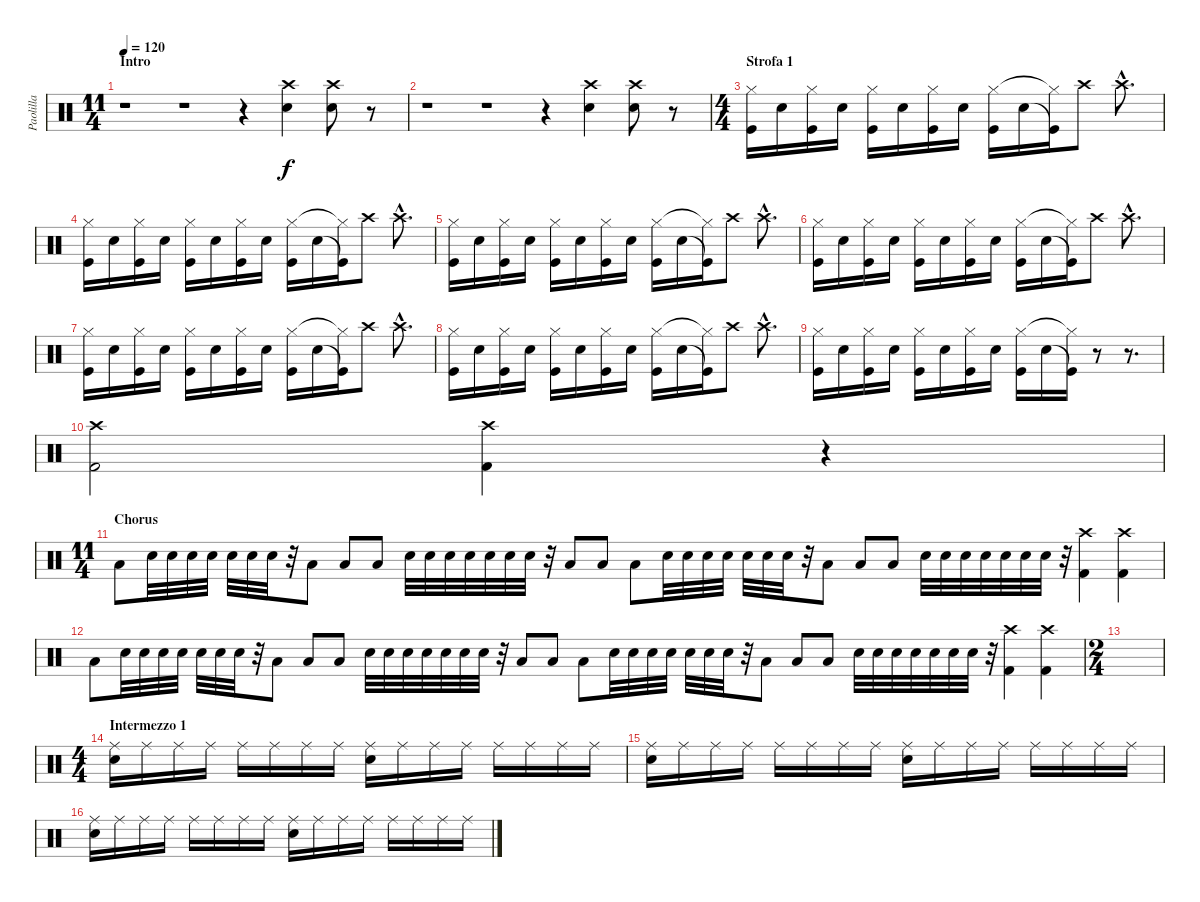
\track ("Paolilla" "Paolilla") {instrument percussion}
\staff {score}
\articulation defaults
\ts (11 4)
\section ("" "Intro")
\tempo 120
\clef neutral
\ks c
r.1{dy f} r.1 r.4 ("Snare (hit) 2" "Crash high (hit)").4 ("Snare (hit) 2" "Crash high (hit)").8 r.8 |
r.1 r.1 r.4 ("Snare (hit) 2" "Crash high (hit)").4 ("Snare (hit) 2" "Crash high (hit)").8 r.8 |
\ts (4 4)
\section ("" "Strofa 1")
("Kick (hit)" "Hi-Hat (closed)").16 "Snare (hit) 2".16 ("Kick (hit)" "Hi-Hat (closed)").16 "Snare (hit) 2".16 ("Kick (hit)" "Hi-Hat (closed)").16 "Snare (hit) 2".16 ("Kick (hit)" "Hi-Hat (closed)").16 "Snare (hit) 2".16 ("Kick (hit)" "Hi-Hat (closed)").16 "Snare (hit) 2".16 ("Kick (hit)"{t} "Hi-Hat (closed)"{t}).16 "Crash high (hit)".8 "Crash high (hit)"{hac}.8{d} |
("Kick (hit)" "Hi-Hat (closed)").16 "Snare (hit) 2".16 ("Kick (hit)" "Hi-Hat (closed)").16 "Snare (hit) 2".16 ("Kick (hit)" "Hi-Hat (closed)").16 "Snare (hit) 2".16 ("Kick (hit)" "Hi-Hat (closed)").16 "Snare (hit) 2".16 ("Kick (hit)" "Hi-Hat (closed)").16 "Snare (hit) 2".16 ("Kick (hit)"{t} "Hi-Hat (closed)"{t}).16 "Crash high (hit)".8 "Crash high (hit)"{hac}.8{d} |
("Kick (hit)" "Hi-Hat (closed)").16 "Snare (hit) 2".16 ("Kick (hit)" "Hi-Hat (closed)").16 "Snare (hit) 2".16 ("Kick (hit)" "Hi-Hat (closed)").16 "Snare (hit) 2".16 ("Kick (hit)" "Hi-Hat (closed)").16 "Snare (hit) 2".16 ("Kick (hit)" "Hi-Hat (closed)").16 "Snare (hit) 2".16 ("Kick (hit)"{t} "Hi-Hat (closed)"{t}).16 "Crash high (hit)".8 "Crash high (hit)"{hac}.8{d} |
("Kick (hit)" "Hi-Hat (closed)").16 "Snare (hit) 2".16 ("Kick (hit)" "Hi-Hat (closed)").16 "Snare (hit) 2".16 ("Kick (hit)" "Hi-Hat (closed)").16 "Snare (hit) 2".16 ("Kick (hit)" "Hi-Hat (closed)").16 "Snare (hit) 2".16 ("Kick (hit)" "Hi-Hat (closed)").16 "Snare (hit) 2".16 ("Kick (hit)"{t} "Hi-Hat (closed)"{t}).16 "Crash high (hit)".8 "Crash high (hit)"{hac}.8{d} |
("Kick (hit)" "Hi-Hat (closed)").16 "Snare (hit) 2".16 ("Kick (hit)" "Hi-Hat (closed)").16 "Snare (hit) 2".16 ("Kick (hit)" "Hi-Hat (closed)").16 "Snare (hit) 2".16 ("Kick (hit)" "Hi-Hat (closed)").16 "Snare (hit) 2".16 ("Kick (hit)" "Hi-Hat (closed)").16 "Snare (hit) 2".16 ("Kick (hit)"{t} "Hi-Hat (closed)"{t}).16 "Crash high (hit)".8 "Crash high (hit)"{hac}.8{d} |
("Kick (hit)" "Hi-Hat (closed)").16 "Snare (hit) 2".16 ("Kick (hit)" "Hi-Hat (closed)").16 "Snare (hit) 2".16 ("Kick (hit)" "Hi-Hat (closed)").16 "Snare (hit) 2".16 ("Kick (hit)" "Hi-Hat (closed)").16 "Snare (hit) 2".16 ("Kick (hit)" "Hi-Hat (closed)").16 "Snare (hit) 2".16 ("Kick (hit)"{t} "Hi-Hat (closed)"{t}).16 "Crash high (hit)".8 "Crash high (hit)"{hac}.8{d} |
("Kick (hit)" "Hi-Hat (closed)").16 "Snare (hit) 2".16 ("Kick (hit)" "Hi-Hat (closed)").16 "Snare (hit) 2".16 ("Kick (hit)" "Hi-Hat (closed)").16 "Snare (hit) 2".16 ("Kick (hit)" "Hi-Hat (closed)").16 "Snare (hit) 2".16 ("Kick (hit)" "Hi-Hat (closed)").16 "Snare (hit) 2".16 ("Kick (hit)"{t} "Hi-Hat (closed)"{t}).16 r.8 r.8{d} |
("Crash high (hit)" "Kick (hit) 2").2 ("Crash high (hit)" "Kick (hit) 2").4 r.4 |
\ts (11 4)
\section ("" "Chorus")
"Low Tom (hit)".8 "Snare (hit) 2".32 "Snare (hit) 2".32 "Snare (hit) 2".32 "Snare (hit) 2".32 "Snare (hit) 2".32 "Snare (hit) 2".32 "Snare (hit) 2".32 r.32 "Low Tom (hit)".8 "Low Tom (hit)".8 "Low Tom (hit)".8 "Snare (hit) 2".32 "Snare (hit) 2".32 "Snare (hit) 2".32 "Snare (hit) 2".32 "Snare (hit) 2".32 "Snare (hit) 2".32 "Snare (hit) 2".32 r.32 "Low Tom (hit)".8 "Low Tom (hit)".8 "Low Tom (hit)".8 "Snare (hit) 2".32 "Snare (hit) 2".32 "Snare (hit) 2".32 "Snare (hit) 2".32 "Snare (hit) 2".32 "Snare (hit) 2".32 "Snare (hit) 2".32 r.32 "Low Tom (hit)".8 "Low Tom (hit)".8 "Low Tom (hit)".8 "Snare (hit) 2".32 "Snare (hit) 2".32 "Snare (hit) 2".32 "Snare (hit) 2".32 "Snare (hit) 2".32 "Snare (hit) 2".32 "Snare (hit) 2".32 r.32 ("Crash high (hit)" "Kick (hit) 2").4 ("Crash high (hit)" "Kick (hit) 2").4 |
"Low Tom (hit)".8 "Snare (hit) 2".32 "Snare (hit) 2".32 "Snare (hit) 2".32 "Snare (hit) 2".32 "Snare (hit) 2".32 "Snare (hit) 2".32 "Snare (hit) 2".32 r.32 "Low Tom (hit)".8 "Low Tom (hit)".8 "Low Tom (hit)".8 "Snare (hit) 2".32 "Snare (hit) 2".32 "Snare (hit) 2".32 "Snare (hit) 2".32 "Snare (hit) 2".32 "Snare (hit) 2".32 "Snare (hit) 2".32 r.32 "Low Tom (hit)".8 "Low Tom (hit)".8 "Low Tom (hit)".8 "Snare (hit) 2".32 "Snare (hit) 2".32 "Snare (hit) 2".32 "Snare (hit) 2".32 "Snare (hit) 2".32 "Snare (hit) 2".32 "Snare (hit) 2".32 r.32 "Low Tom (hit)".8 "Low Tom (hit)".8 "Low Tom (hit)".8 "Snare (hit) 2".32 "Snare (hit) 2".32 "Snare (hit) 2".32 "Snare (hit) 2".32 "Snare (hit) 2".32 "Snare (hit) 2".32 "Snare (hit) 2".32 r.32 ("Crash high (hit)" "Kick (hit) 2").4 ("Crash high (hit)" "Kick (hit) 2").4 |
\ts (2 4)
|
\ts (4 4)
\section ("" "Intermezzo 1")
("Ride (middle)" "Snare (hit) 2").16 "Ride (middle)".16 "Ride (middle)".16 "Ride (middle)".16 "Ride (middle)".16 "Ride (middle)".16 "Ride (middle)".16 "Ride (middle)".16 ("Ride (middle)" "Snare (hit) 2").16 "Ride (middle)".16 "Ride (middle)".16 "Ride (middle)".16 "Ride (middle)".16 "Ride (middle)".16 "Ride (middle)".16 "Ride (middle)".16 |
("Ride (middle)" "Snare (hit) 2").16 "Ride (middle)".16 "Ride (middle)".16 "Ride (middle)".16 "Ride (middle)".16 "Ride (middle)".16 "Ride (middle)".16 "Ride (middle)".16 ("Ride (middle)" "Snare (hit) 2").16 "Ride (middle)".16 "Ride (middle)".16 "Ride (middle)".16 "Ride (middle)".16 "Ride (middle)".16 "Ride (middle)".16 "Ride (middle)".16 |
("Ride (middle)" "Snare (hit) 2").16 "Ride (middle)".16 "Ride (middle)".16 "Ride (middle)".16 "Ride (middle)".16 "Ride (middle)".16 "Ride (middle)".16 "Ride (middle)".16 ("Ride (middle)" "Snare (hit) 2").16 "Ride (middle)".16 "Ride (middle)".16 "Ride (middle)".16 "Ride (middle)".16 "Ride (middle)".16 "Ride (middle)".16 "Ride (middle)".16
